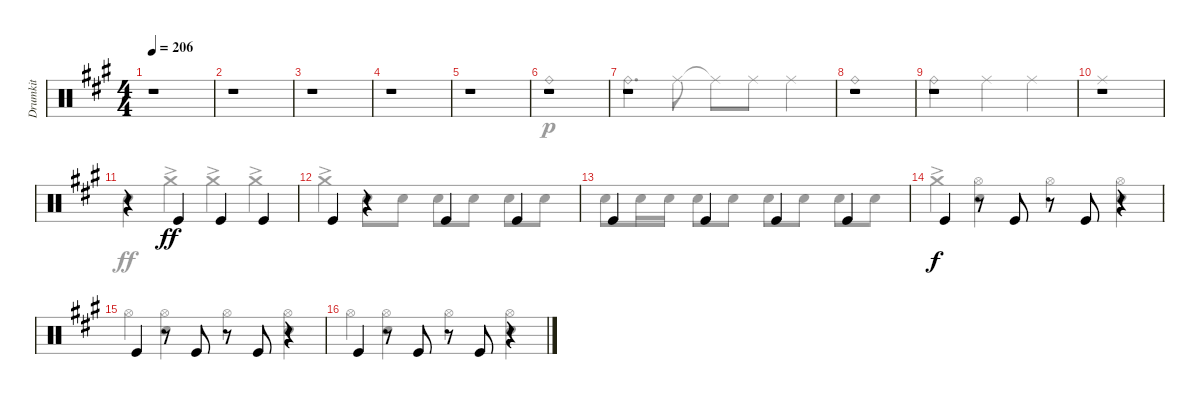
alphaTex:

\track ("Drumkit" "Drumkit") {instrument percussion}
\staff {score}
\articulation defaults
\voice
\ts (4 4)
\tempo 206
\clef neutral
\ks a
r.1{dy ff} |
r.1 |
r.1 |
r.1 |
r.1 |
r.1 |
r.1 |
r.1 |
r.1 |
r.1 |
r.4 "Kick (hit)".4 "Kick (hit)".4 "Kick (hit)".4 |
"Kick (hit)".4 r.4 "Kick (hit)".4 "Kick (hit)".4 |
"Kick (hit)".4 "Kick (hit)".4 "Kick (hit)".4 "Kick (hit)".4 |
\section ("" "")
"Kick (hit)".4{dy f} r.8 "Kick (hit)".8 r.8 "Kick (hit)".8 r.4 |
"Kick (hit)".4 r.8 "Kick (hit)".8 r.8 "Kick (hit)".8 r.4 |
"Kick (hit)".4 r.8 "Kick (hit)".8 r.8 "Kick (hit)".8 r.4
\voice
\clef neutral
\ottava regular
\simile none
\ks a
r.1{dy ff} |
r.1 |
r.1 |
r.1 |
r.1 |
"Ride (bell)".1{dy p} |
"Ride (bell)".4{d} "Ride (middle)".8 "Ride (middle)"{t}.8 "Ride (middle)".8 "Ride (middle)".4 |
"Ride (bell)".1 |
"Ride (bell)".2 "Ride (middle)".4 "Ride (middle)".4 |
"Ride (middle)".1 |
"Snare (hit) 2".4{dy ff} "Crash medium (hit)"{ac}.4 "Crash medium (hit)"{ac}.4 "Crash medium (hit)"{ac}.4 |
"Crash medium (hit)"{ac}.4 "Snare (hit) 2".8 "Snare (hit) 2".8 "Snare (hit) 2".8 "Snare (hit) 2".8 "Snare (hit) 2".8 "Snare (hit) 2".8 |
"Snare (hit) 2".8 "Snare (hit) 2".16 "Snare (hit) 2".16 "Snare (hit) 2".8 "Snare (hit) 2".8 "Snare (hit) 2".8 "Snare (hit) 2".8 "Snare (hit) 2".8 "Snare (hit) 2".8 |
"Crash medium (hit)"{ac}.4{dy f} ("Hi-Hat (open)" "Snare (hit) 2").4 "Hi-Hat (open)".4 ("Hi-Hat (open)" "Snare (hit) 2").4 |
"Hi-Hat (open)".4 ("Hi-Hat (open)" "Snare (hit) 2").4 "Hi-Hat (open)".4 ("Hi-Hat (open)" "Snare (hit) 2").4 |
"Hi-Hat (open)".4 ("Hi-Hat (open)" "Snare (hit) 2").4 "Hi-Hat (open)".4 ("Hi-Hat (open)" "Snare (hit) 2").4
